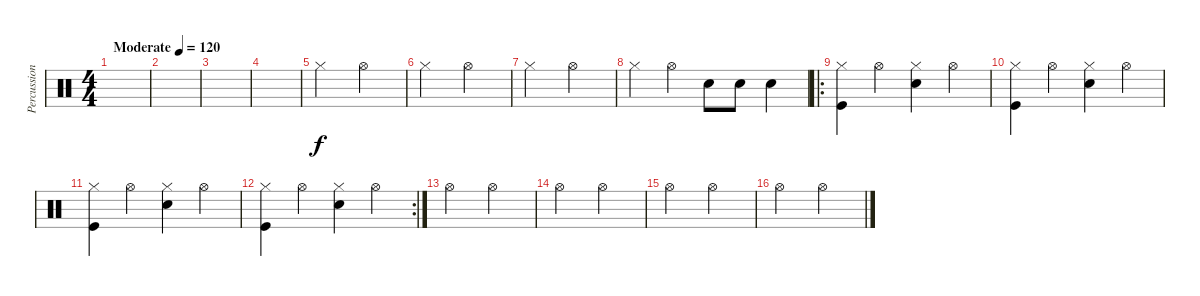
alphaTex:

\track ("Percussion" "Percussion") {instrument percussion}
\staff {score}
\articulation defaults
\ts (4 4)
\tempo (120 "Moderate")
\clef neutral
\ks c
|
|
|
|
"Hi-Hat (closed)".2 "Hi-Hat (open)".2 |
"Hi-Hat (closed)".2 "Hi-Hat (open)".2 |
"Hi-Hat (closed)".2 "Hi-Hat (open)".2 |
"Hi-Hat (closed)".4 "Hi-Hat (open)".4 "Snare (hit) 2".8 "Snare (hit) 2".8 "Snare (hit) 2".4 |
\ro
("Hi-Hat (closed)" "Kick (hit)").4 "Hi-Hat (open)".4 ("Hi-Hat (closed)" "Snare (hit) 2").4 "Hi-Hat (open)".4 |
("Hi-Hat (closed)" "Kick (hit)").4 "Hi-Hat (open)".4 ("Hi-Hat (closed)" "Snare (hit) 2").4 "Hi-Hat (open)".4 |
("Hi-Hat (closed)" "Kick (hit)").4 "Hi-Hat (open)".4 ("Hi-Hat (closed)" "Snare (hit) 2").4 "Hi-Hat (open)".4 |
\rc 2
("Hi-Hat (closed)" "Kick (hit)").4 "Hi-Hat (open)".4 ("Hi-Hat (closed)" "Snare (hit) 2").4 "Hi-Hat (open)".4 |
"Hi-Hat (open)".2 "Hi-Hat (open)".2 |
"Hi-Hat (open)".2 "Hi-Hat (open)".2 |
"Hi-Hat (open)".2 "Hi-Hat (open)".2 |
"Hi-Hat (open)".2 "Hi-Hat (open)".2
